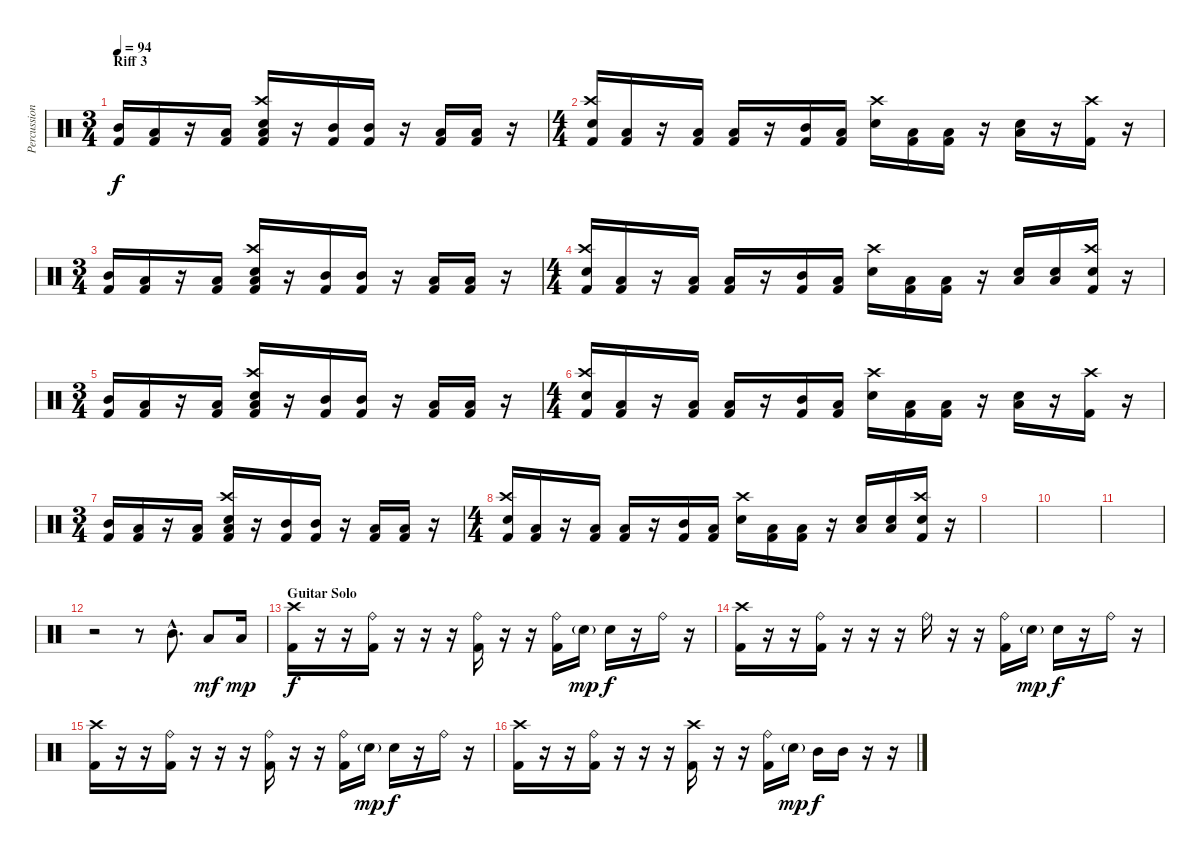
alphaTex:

\track ("Percussion" "Percussion") {instrument percussion}
\staff {score}
\articulation defaults
\ts (3 4)
\section ("" "Riff 3")
\tempo 94
\clef neutral
\ks c
("Mid Tom (hit)" "Kick (hit) 2").16{dy f} ("Low Tom (hit)" "Kick (hit) 2").16 r.16 ("Low Tom (hit)" "Kick (hit) 2").16 ("Crash high (hit)" "Electric Snare (hit)" "Low Floor Tom (hit)" "Kick (hit) 2").16 r.16 ("Mid Tom (hit)" "Kick (hit) 2").16 ("Mid Tom (hit)" "Kick (hit) 2").16 r.16 ("Low Tom (hit)" "Kick (hit) 2").16 ("Low Floor Tom (hit)" "Kick (hit) 2").16 r.16 |
\ts (4 4)
("Crash high (hit)" "Electric Snare (hit)" "Kick (hit) 2").16 ("Low Tom (hit)" "Kick (hit) 2").16 r.16 ("Low Tom (hit)" "Kick (hit) 2").16 ("Low Floor Tom (hit)" "Kick (hit) 2").16 r.16 ("Mid Tom (hit)" "Kick (hit) 2").16 ("Low Tom (hit)" "Kick (hit) 2").16 ("Crash high (hit)" "Electric Snare (hit)").16 ("Low Tom (hit)" "Kick (hit) 2").16 ("Low Floor Tom (hit)" "Kick (hit) 2").16 r.16 ("Electric Snare (hit)" "Low Floor Tom (hit)").16 r.16 ("Crash high (hit)" "Kick (hit) 2").16 r.16 |
\ts (3 4)
("Mid Tom (hit)" "Kick (hit) 2").16 ("Low Tom (hit)" "Kick (hit) 2").16 r.16 ("Low Tom (hit)" "Kick (hit) 2").16 ("Crash high (hit)" "Electric Snare (hit)" "Low Floor Tom (hit)" "Kick (hit) 2").16 r.16 ("Mid Tom (hit)" "Kick (hit) 2").16 ("Mid Tom (hit)" "Kick (hit) 2").16 r.16 ("Low Tom (hit)" "Kick (hit) 2").16 ("Low Floor Tom (hit)" "Kick (hit) 2").16 r.16 |
\ts (4 4)
("Crash high (hit)" "Electric Snare (hit)" "Kick (hit) 2").16 ("Low Tom (hit)" "Kick (hit) 2").16 r.16 ("Low Tom (hit)" "Kick (hit) 2").16 ("Low Floor Tom (hit)" "Kick (hit) 2").16 r.16 ("Mid Tom (hit)" "Kick (hit) 2").16 ("Low Tom (hit)" "Kick (hit) 2").16 ("Crash high (hit)" "Electric Snare (hit)").16 ("Low Tom (hit)" "Kick (hit) 2").16 ("Low Floor Tom (hit)" "Kick (hit) 2").16 r.16 ("Electric Snare (hit)" "Low Floor Tom (hit)").16 ("Electric Snare (hit)" "Low Floor Tom (hit)").16 ("Crash high (hit)" "Electric Snare (hit)" "Kick (hit) 2").16 r.16 |
\ts (3 4)
("Mid Tom (hit)" "Kick (hit) 2").16 ("Low Tom (hit)" "Kick (hit) 2").16 r.16 ("Low Tom (hit)" "Kick (hit) 2").16 ("Crash high (hit)" "Electric Snare (hit)" "Low Floor Tom (hit)" "Kick (hit) 2").16 r.16 ("Mid Tom (hit)" "Kick (hit) 2").16 ("Mid Tom (hit)" "Kick (hit) 2").16 r.16 ("Low Tom (hit)" "Kick (hit) 2").16 ("Low Floor Tom (hit)" "Kick (hit) 2").16 r.16 |
\ts (4 4)
("Crash high (hit)" "Electric Snare (hit)" "Kick (hit) 2").16 ("Low Tom (hit)" "Kick (hit) 2").16 r.16 ("Low Tom (hit)" "Kick (hit) 2").16 ("Low Floor Tom (hit)" "Kick (hit) 2").16 r.16 ("Mid Tom (hit)" "Kick (hit) 2").16 ("Low Tom (hit)" "Kick (hit) 2").16 ("Crash high (hit)" "Electric Snare (hit)").16 ("Low Tom (hit)" "Kick (hit) 2").16 ("Low Floor Tom (hit)" "Kick (hit) 2").16 r.16 ("Electric Snare (hit)" "Low Floor Tom (hit)").16 r.16 ("Crash high (hit)" "Kick (hit) 2").16 r.16 |
\ts (3 4)
("Mid Tom (hit)" "Kick (hit) 2").16 ("Low Tom (hit)" "Kick (hit) 2").16 r.16 ("Low Tom (hit)" "Kick (hit) 2").16 ("Crash high (hit)" "Electric Snare (hit)" "Low Floor Tom (hit)" "Kick (hit) 2").16 r.16 ("Mid Tom (hit)" "Kick (hit) 2").16 ("Mid Tom (hit)" "Kick (hit) 2").16 r.16 ("Low Tom (hit)" "Kick (hit) 2").16 ("Low Floor Tom (hit)" "Kick (hit) 2").16 r.16 |
\ts (4 4)
("Crash high (hit)" "Electric Snare (hit)" "Kick (hit) 2").16 ("Low Tom (hit)" "Kick (hit) 2").16 r.16 ("Low Tom (hit)" "Kick (hit) 2").16 ("Low Floor Tom (hit)" "Kick (hit) 2").16 r.16 ("Mid Tom (hit)" "Kick (hit) 2").16 ("Low Tom (hit)" "Kick (hit) 2").16 ("Crash high (hit)" "Electric Snare (hit)").16 ("Low Tom (hit)" "Kick (hit) 2").16 ("Low Floor Tom (hit)" "Kick (hit) 2").16 r.16 ("Electric Snare (hit)" "Low Floor Tom (hit)").16 ("Electric Snare (hit)" "Low Floor Tom (hit)").16 ("Crash high (hit)" "Electric Snare (hit)" "Kick (hit) 2").16 r.16 |
|
|
|
r.2 r.8 "Mid Tom (hit)"{hac}.8{d} "Low Tom (hit)".8{dy mf} "Low Floor Tom (hit)".16{dy mp} |
\section ("" "Guitar Solo")
("Crash high (hit)" "Kick (hit) 2").16{dy f} r.16 r.16 ("Ride (bell)" "Kick (hit) 2").16 r.16 r.16 r.16 ("Ride (bell)" "Kick (hit) 2").16 r.16 r.16 ("Ride (bell)" "Kick (hit) 2").16 "Electric Snare (hit)"{g}.16{dy mp} "Electric Snare (hit)".16{dy f} r.16 "Ride (bell)".16 r.16 |
("Crash high (hit)" "Kick (hit) 2").16 r.16 r.16 ("Ride (bell)" "Kick (hit) 2").16 r.16 r.16 r.16 "Ride (bell)".16 r.16 r.16 ("Ride (bell)" "Kick (hit) 2").16 "Electric Snare (hit)"{g}.16{dy mp} "Electric Snare (hit)".16{dy f} r.16 "Ride (bell)".16 r.16 |
("Crash high (hit)" "Kick (hit) 2").16 r.16 r.16 ("Ride (bell)" "Kick (hit) 2").16 r.16 r.16 r.16 ("Ride (bell)" "Kick (hit) 2").16 r.16 r.16 ("Ride (bell)" "Kick (hit) 2").16 "Electric Snare (hit)"{g}.16{dy mp} "Electric Snare (hit)".16{dy f} r.16 "Ride (bell)".16 r.16 |
("Crash high (hit)" "Kick (hit) 2").16 r.16 r.16 ("Ride (bell)" "Kick (hit) 2").16 r.16 r.16 r.16 ("Crash high (hit)" "Kick (hit) 2").16 r.16 r.16 ("Ride (bell)" "Kick (hit) 2").16 "Electric Snare (hit)"{g}.16{dy mp} "Mid Tom (hit)".16{dy f} "Mid Tom (hit)".16 r.16 r.16
